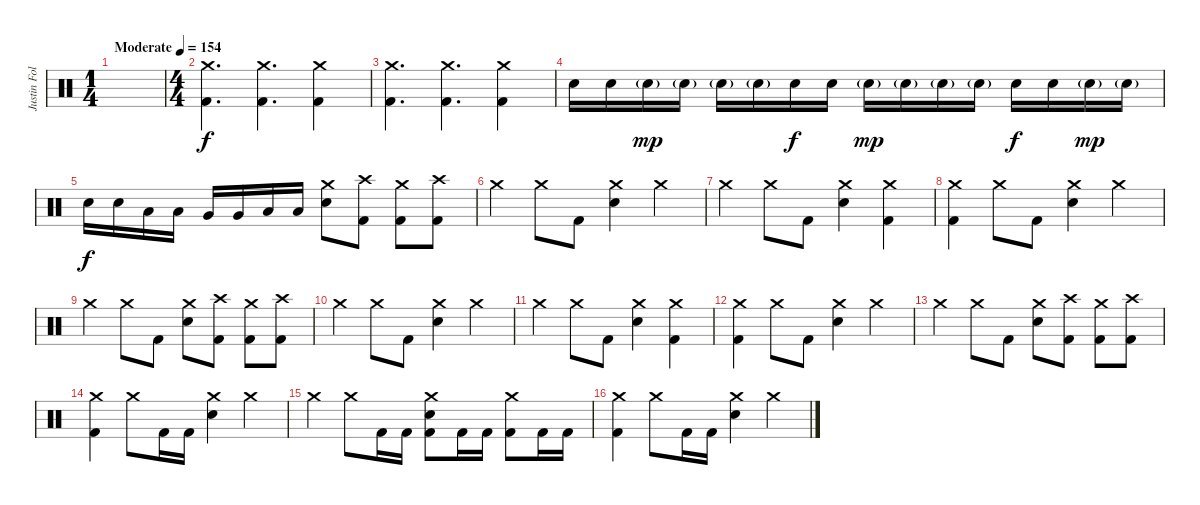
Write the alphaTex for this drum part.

\track ("Justin Foley" "Justin Fol") {instrument percussion}
\staff {score}
\articulation defaults
\ts (1 4)
\tempo (154 "Moderate")
\clef neutral
\ks c
|
\ts (4 4)
("Crash medium (hit)" "Kick (hit) 2").4{d} ("Crash medium (hit)" "Kick (hit) 2").4{d} ("Crash medium (hit)" "Kick (hit) 2").4 |
("Crash medium (hit)" "Kick (hit) 2").4{d} ("Crash medium (hit)" "Kick (hit) 2").4{d} ("Crash medium (hit)" "Kick (hit) 2").4 |
"Electric Snare (hit)".16 "Electric Snare (hit)".16 "Electric Snare (hit)"{g}.16{dy mp} "Electric Snare (hit)"{g}.16 "Electric Snare (hit)"{g}.16 "Electric Snare (hit)"{g}.16 "Electric Snare (hit)".16{dy f} "Electric Snare (hit)".16 "Electric Snare (hit)"{g}.16{dy mp} "Electric Snare (hit)"{g}.16 "Electric Snare (hit)"{g}.16 "Electric Snare (hit)"{g}.16 "Electric Snare (hit)".16{dy f} "Electric Snare (hit)".16 "Electric Snare (hit)"{g}.16{dy mp} "Electric Snare (hit)"{g}.16 |
"Electric Snare (hit)".16{dy f} "Electric Snare (hit)".16 "Low Tom (hit)".16 "Low Tom (hit)".16 "Very Low Tom (hit)".16 "Very Low Tom (hit)".16 "Low Floor Tom (hit)".16 "Low Floor Tom (hit)".16 ("Crash medium (hit)" "Electric Snare (hit)").8 ("Crash high (hit)" "Kick (hit) 2").8 ("Crash medium (hit)" "Kick (hit) 2").8 ("Crash high (hit)" "Kick (hit) 2").8 |
"Crash medium (hit)".4 "Crash medium (hit)".8 "Kick (hit) 2".8 ("Crash medium (hit)" "Electric Snare (hit)").4 "Crash medium (hit)".4 |
"Crash medium (hit)".4 "Crash medium (hit)".8 "Kick (hit) 2".8 ("Crash medium (hit)" "Electric Snare (hit)").4 ("Crash medium (hit)" "Kick (hit) 2").4 |
("Crash medium (hit)" "Kick (hit) 2").4 "Crash medium (hit)".8 "Kick (hit) 2".8 ("Crash medium (hit)" "Electric Snare (hit)").4 "Crash medium (hit)".4 |
"Crash medium (hit)".4 "Crash medium (hit)".8 "Kick (hit) 2".8 ("Crash medium (hit)" "Electric Snare (hit)").8 ("Crash high (hit)" "Kick (hit) 2").8 ("Crash medium (hit)" "Kick (hit) 2").8 ("Crash high (hit)" "Kick (hit) 2").8 |
"Crash medium (hit)".4 "Crash medium (hit)".8 "Kick (hit) 2".8 ("Crash medium (hit)" "Electric Snare (hit)").4 "Crash medium (hit)".4 |
"Crash medium (hit)".4 "Crash medium (hit)".8 "Kick (hit) 2".8 ("Crash medium (hit)" "Electric Snare (hit)").4 ("Crash medium (hit)" "Kick (hit) 2").4 |
("Crash medium (hit)" "Kick (hit) 2").4 "Crash medium (hit)".8 "Kick (hit) 2".8 ("Crash medium (hit)" "Electric Snare (hit)").4 "Crash medium (hit)".4 |
"Crash medium (hit)".4 "Crash medium (hit)".8 "Kick (hit) 2".8 ("Crash medium (hit)" "Electric Snare (hit)").8 ("Crash high (hit)" "Kick (hit) 2").8 ("Crash medium (hit)" "Kick (hit) 2").8 ("Crash high (hit)" "Kick (hit) 2").8 |
("Crash medium (hit)" "Kick (hit) 2").4 "Crash medium (hit)".8 "Kick (hit) 2".16 "Kick (hit) 2".16 ("Crash medium (hit)" "Electric Snare (hit)").4 "Crash medium (hit)".4 |
"Crash medium (hit)".4 "Crash medium (hit)".8 "Kick (hit) 2".16 "Kick (hit) 2".16 ("Crash medium (hit)" "Electric Snare (hit)" "Kick (hit) 2").8 "Kick (hit) 2".16 "Kick (hit) 2".16 ("Crash medium (hit)" "Kick (hit) 2").8 "Kick (hit) 2".16 "Kick (hit) 2".16 |
("Crash medium (hit)" "Kick (hit) 2").4 "Crash medium (hit)".8 "Kick (hit) 2".16 "Kick (hit) 2".16 ("Crash medium (hit)" "Electric Snare (hit)").4 "Crash medium (hit)".4
